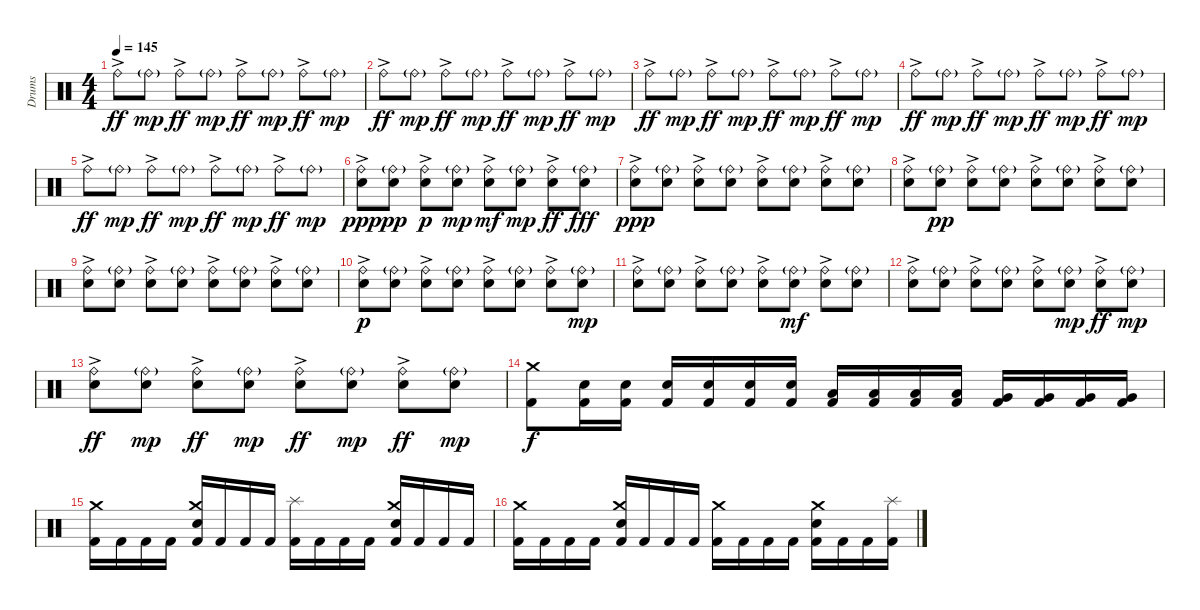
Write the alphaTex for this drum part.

\track ("Drums" "Drums") {instrument percussion}
\staff {score}
\articulation defaults
\ts (4 4)
\tempo 145
\clef neutral
\ks c "Ride (bell)"{ac}.8{dy ff} "Ride (bell)"{g}.8{dy mp} "Ride (bell)"{ac}.8{dy ff} "Ride (bell)"{g}.8{dy mp} "Ride (bell)"{ac}.8{dy ff} "Ride (bell)"{g}.8{dy mp} "Ride (bell)"{ac}.8{dy ff} "Ride (bell)"{g}.8{dy mp}
|
"Ride (bell)"{ac}.8{dy ff} "Ride (bell)"{g}.8{dy mp} "Ride (bell)"{ac}.8{dy ff} "Ride (bell)"{g}.8{dy mp} "Ride (bell)"{ac}.8{dy ff} "Ride (bell)"{g}.8{dy mp} "Ride (bell)"{ac}.8{dy ff} "Ride (bell)"{g}.8{dy mp} |
"Ride (bell)"{ac}.8{dy ff} "Ride (bell)"{g}.8{dy mp} "Ride (bell)"{ac}.8{dy ff} "Ride (bell)"{g}.8{dy mp} "Ride (bell)"{ac}.8{dy ff} "Ride (bell)"{g}.8{dy mp} "Ride (bell)"{ac}.8{dy ff} "Ride (bell)"{g}.8{dy mp} |
"Ride (bell)"{ac}.8{dy ff} "Ride (bell)"{g}.8{dy mp} "Ride (bell)"{ac}.8{dy ff} "Ride (bell)"{g}.8{dy mp} "Ride (bell)"{ac}.8{dy ff} "Ride (bell)"{g}.8{dy mp} "Ride (bell)"{ac}.8{dy ff} "Ride (bell)"{g}.8{dy mp} |
"Ride (bell)"{ac}.8{dy ff} "Ride (bell)"{g}.8{dy mp} "Ride (bell)"{ac}.8{dy ff} "Ride (bell)"{g}.8{dy mp} "Ride (bell)"{ac}.8{dy ff} "Ride (bell)"{g}.8{dy mp} "Ride (bell)"{ac}.8{dy ff} "Ride (bell)"{g}.8{dy mp} |
("Ride (bell)"{ac} "Electric Snare (hit)").8{dy ppp} ("Ride (bell)"{g} "Electric Snare (hit)").8{dy pp} ("Ride (bell)"{ac} "Electric Snare (hit)").8{dy p} ("Ride (bell)"{g} "Electric Snare (hit)").8{dy mp} ("Ride (bell)"{ac} "Electric Snare (hit)").8{dy mf} ("Ride (bell)"{g} "Electric Snare (hit)").8{dy mp} ("Ride (bell)"{ac} "Electric Snare (hit)").8{dy ff} ("Ride (bell)"{g} "Electric Snare (hit)").8{dy fff} |
("Ride (bell)"{ac} "Electric Snare (hit)").8{dy ppp} ("Ride (bell)"{g} "Electric Snare (hit)").8 ("Ride (bell)"{ac} "Electric Snare (hit)").8 ("Ride (bell)"{g} "Electric Snare (hit)").8 ("Ride (bell)"{ac} "Electric Snare (hit)").8 ("Ride (bell)"{g} "Electric Snare (hit)").8 ("Ride (bell)"{ac} "Electric Snare (hit)").8 ("Ride (bell)"{g} "Electric Snare (hit)").8 |
("Ride (bell)"{ac} "Electric Snare (hit)").8 ("Ride (bell)"{g} "Electric Snare (hit)").8{dy pp} ("Ride (bell)"{ac} "Electric Snare (hit)").8 ("Ride (bell)"{g} "Electric Snare (hit)").8 ("Ride (bell)"{ac} "Electric Snare (hit)").8 ("Ride (bell)"{g} "Electric Snare (hit)").8 ("Ride (bell)"{ac} "Electric Snare (hit)").8 ("Ride (bell)"{g} "Electric Snare (hit)").8 |
("Ride (bell)"{ac} "Electric Snare (hit)").8 ("Ride (bell)"{g} "Electric Snare (hit)").8 ("Ride (bell)"{ac} "Electric Snare (hit)").8 ("Ride (bell)"{g} "Electric Snare (hit)").8 ("Ride (bell)"{ac} "Electric Snare (hit)").8 ("Ride (bell)"{g} "Electric Snare (hit)").8 ("Ride (bell)"{ac} "Electric Snare (hit)").8 ("Ride (bell)"{g} "Electric Snare (hit)").8 |
("Ride (bell)"{ac} "Electric Snare (hit)").8{dy p} ("Ride (bell)"{g} "Electric Snare (hit)").8 ("Ride (bell)"{ac} "Electric Snare (hit)").8 ("Ride (bell)"{g} "Electric Snare (hit)").8 ("Ride (bell)"{ac} "Electric Snare (hit)").8 ("Ride (bell)"{g} "Electric Snare (hit)").8 ("Ride (bell)"{ac} "Electric Snare (hit)").8 ("Ride (bell)"{g} "Electric Snare (hit)").8{dy mp} |
("Ride (bell)"{ac} "Electric Snare (hit)").8 ("Ride (bell)"{g} "Electric Snare (hit)").8 ("Ride (bell)"{ac} "Electric Snare (hit)").8 ("Ride (bell)"{g} "Electric Snare (hit)").8 ("Ride (bell)"{ac} "Electric Snare (hit)").8 ("Ride (bell)"{g} "Electric Snare (hit)").8{dy mf} ("Ride (bell)"{ac} "Electric Snare (hit)").8 ("Ride (bell)"{g} "Electric Snare (hit)").8 |
("Ride (bell)"{ac} "Electric Snare (hit)").8 ("Ride (bell)"{g} "Electric Snare (hit)").8 ("Ride (bell)"{ac} "Electric Snare (hit)").8 ("Ride (bell)"{g} "Electric Snare (hit)").8 ("Ride (bell)"{ac} "Electric Snare (hit)").8 ("Ride (bell)"{g} "Electric Snare (hit)").8{dy mp} ("Ride (bell)"{ac} "Electric Snare (hit)").8{dy ff} ("Ride (bell)"{g} "Electric Snare (hit)").8{dy mp} |
("Ride (bell)"{ac} "Electric Snare (hit)").8{dy ff} ("Ride (bell)"{g} "Electric Snare (hit)").8{dy mp} ("Ride (bell)"{ac} "Electric Snare (hit)").8{dy ff} ("Ride (bell)"{g} "Electric Snare (hit)").8{dy mp} ("Ride (bell)"{ac} "Electric Snare (hit)").8{dy ff} ("Ride (bell)"{g} "Electric Snare (hit)").8{dy mp} ("Ride (bell)"{ac} "Electric Snare (hit)").8{dy ff} ("Ride (bell)"{g} "Electric Snare (hit)").8{dy mp} |
("Crash medium (hit)" "Kick (hit) 2").8{dy f} ("Electric Snare (hit)" "Kick (hit) 2").16 ("Electric Snare (hit)" "Kick (hit) 2").16 ("Electric Snare (hit)" "Kick (hit) 2").16 ("Electric Snare (hit)" "Kick (hit) 2").16 ("Electric Snare (hit)" "Kick (hit) 2").16 ("Electric Snare (hit)" "Kick (hit) 2").16 ("Low Tom (hit)" "Kick (hit) 2").16 ("Low Tom (hit)" "Kick (hit) 2").16 ("Low Tom (hit)" "Kick (hit) 2").16 ("Low Tom (hit)" "Kick (hit) 2").16 ("Very Low Tom (hit)" "Kick (hit) 2").16 ("Very Low Tom (hit)" "Kick (hit) 2").16 ("Very Low Tom (hit)" "Kick (hit) 2").16 ("Very Low Tom (hit)" "Kick (hit) 2").16 |
("Crash medium (hit)" "Kick (hit) 2").16 "Kick (hit) 2".16 "Kick (hit) 2".16 "Kick (hit) 2".16 ("Crash medium (hit)" "Electric Snare (hit)" "Kick (hit) 2").16 "Kick (hit) 2".16 "Kick (hit) 2".16 "Kick (hit) 2".16 ("Splash (hit)" "Kick (hit) 2").16 "Kick (hit) 2".16 "Kick (hit) 2".16 "Kick (hit) 2".16 ("Crash medium (hit)" "Electric Snare (hit)" "Kick (hit) 2").16 "Kick (hit) 2".16 "Kick (hit) 2".16 "Kick (hit) 2".16 |
("Crash medium (hit)" "Kick (hit) 2").16 "Kick (hit) 2".16 "Kick (hit) 2".16 "Kick (hit) 2".16 ("Crash medium (hit)" "Electric Snare (hit)" "Kick (hit) 2").16 "Kick (hit) 2".16 "Kick (hit) 2".16 "Kick (hit) 2".16 ("Crash medium (hit)" "Kick (hit) 2").16 "Kick (hit) 2".16 "Kick (hit) 2".16 "Kick (hit) 2".16 ("Crash medium (hit)" "Electric Snare (hit)" "Kick (hit) 2").16 "Kick (hit) 2".16 "Kick (hit) 2".16 ("Splash (hit)" "Kick (hit) 2").16
